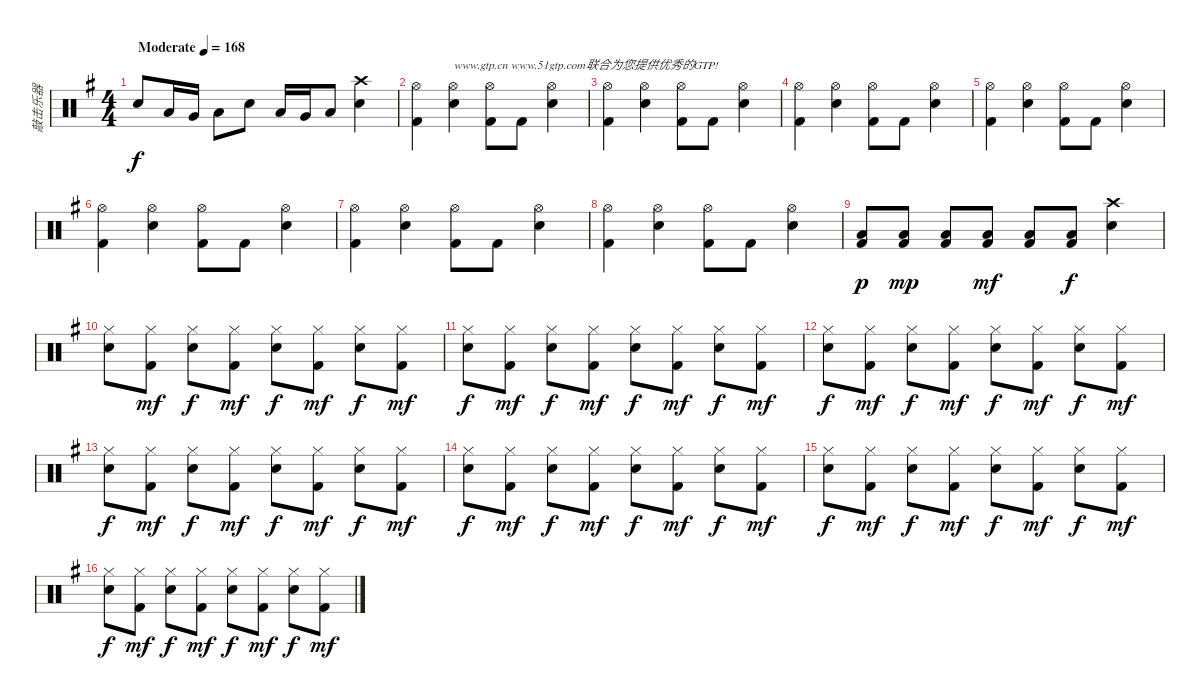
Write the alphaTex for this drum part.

\track ("敲击乐器" "敲击乐器") {instrument percussion}
\staff {score}
\articulation defaults
\ts (4 4)
\tempo (168 "Moderate")
\clef neutral
\ks g "Snare (hit) 2".8{dy f} "Low Tom (hit)".16 "Very Low Tom (hit)".16 "Low Tom (hit)".8 "Snare (hit) 2".8 "Low Tom (hit)".16 "Very Low Tom (hit)".16 "Low Tom (hit)".8
("Crash high (hit)" "Snare (hit) 2").4 |
("Hi-Hat (open)" "Kick (hit) 2").4 ("Hi-Hat (open)" "Snare (hit) 2").4{txt "www.gtp.cn www.51gtp.com联合为您提供优秀的GTP!"} ("Hi-Hat (open)" "Kick (hit) 2").8 "Kick (hit) 2".8 ("Hi-Hat (open)" "Snare (hit) 2").4 |
("Hi-Hat (open)" "Kick (hit) 2").4 ("Hi-Hat (open)" "Snare (hit) 2").4 ("Hi-Hat (open)" "Kick (hit) 2").8 "Kick (hit) 2".8 ("Hi-Hat (open)" "Snare (hit) 2").4 |
("Hi-Hat (open)" "Kick (hit) 2").4 ("Hi-Hat (open)" "Snare (hit) 2").4 ("Hi-Hat (open)" "Kick (hit) 2").8 "Kick (hit) 2".8 ("Hi-Hat (open)" "Snare (hit) 2").4 |
("Hi-Hat (open)" "Kick (hit) 2").4 ("Hi-Hat (open)" "Snare (hit) 2").4 ("Hi-Hat (open)" "Kick (hit) 2").8 "Kick (hit) 2".8 ("Hi-Hat (open)" "Snare (hit) 2").4 |
("Hi-Hat (open)" "Kick (hit) 2").4 ("Hi-Hat (open)" "Snare (hit) 2").4 ("Hi-Hat (open)" "Kick (hit) 2").8 "Kick (hit) 2".8 ("Hi-Hat (open)" "Snare (hit) 2").4 |
("Hi-Hat (open)" "Kick (hit) 2").4 ("Hi-Hat (open)" "Snare (hit) 2").4 ("Hi-Hat (open)" "Kick (hit) 2").8 "Kick (hit) 2".8 ("Hi-Hat (open)" "Snare (hit) 2").4 |
("Hi-Hat (open)" "Kick (hit) 2").4 ("Hi-Hat (open)" "Snare (hit) 2").4 ("Hi-Hat (open)" "Kick (hit) 2").8 "Kick (hit) 2".8 ("Hi-Hat (open)" "Snare (hit) 2").4 |
("Low Tom (hit)" "Kick (hit) 2").8{dy p} ("Low Tom (hit)" "Kick (hit) 2").8{dy mp} ("Low Tom (hit)" "Kick (hit) 2").8 ("Low Tom (hit)" "Kick (hit) 2").8{dy mf} ("Low Tom (hit)" "Kick (hit) 2").8 ("Low Tom (hit)" "Kick (hit) 2").8{dy f} ("Crash high (hit)" "Snare (hit) 2").4 |
("Hi-Hat (closed)" "Snare (hit) 2").8 ("Hi-Hat (closed)" "Kick (hit) 2").8{dy mf} ("Hi-Hat (closed)" "Snare (hit) 2").8{dy f} ("Hi-Hat (closed)" "Kick (hit) 2").8{dy mf} ("Hi-Hat (closed)" "Snare (hit) 2").8{dy f} ("Hi-Hat (closed)" "Kick (hit) 2").8{dy mf} ("Hi-Hat (closed)" "Snare (hit) 2").8{dy f} ("Hi-Hat (closed)" "Kick (hit) 2").8{dy mf} |
("Hi-Hat (closed)" "Snare (hit) 2").8{dy f} ("Hi-Hat (closed)" "Kick (hit) 2").8{dy mf} ("Hi-Hat (closed)" "Snare (hit) 2").8{dy f} ("Hi-Hat (closed)" "Kick (hit) 2").8{dy mf} ("Hi-Hat (closed)" "Snare (hit) 2").8{dy f} ("Hi-Hat (closed)" "Kick (hit) 2").8{dy mf} ("Hi-Hat (closed)" "Snare (hit) 2").8{dy f} ("Hi-Hat (closed)" "Kick (hit) 2").8{dy mf} |
("Hi-Hat (closed)" "Snare (hit) 2").8{dy f} ("Hi-Hat (closed)" "Kick (hit) 2").8{dy mf} ("Hi-Hat (closed)" "Snare (hit) 2").8{dy f} ("Hi-Hat (closed)" "Kick (hit) 2").8{dy mf} ("Hi-Hat (closed)" "Snare (hit) 2").8{dy f} ("Hi-Hat (closed)" "Kick (hit) 2").8{dy mf} ("Hi-Hat (closed)" "Snare (hit) 2").8{dy f} ("Hi-Hat (closed)" "Kick (hit) 2").8{dy mf} |
("Hi-Hat (closed)" "Snare (hit) 2").8{dy f} ("Hi-Hat (closed)" "Kick (hit) 2").8{dy mf} ("Hi-Hat (closed)" "Snare (hit) 2").8{dy f} ("Hi-Hat (closed)" "Kick (hit) 2").8{dy mf} ("Hi-Hat (closed)" "Snare (hit) 2").8{dy f} ("Hi-Hat (closed)" "Kick (hit) 2").8{dy mf} ("Hi-Hat (closed)" "Snare (hit) 2").8{dy f} ("Hi-Hat (closed)" "Kick (hit) 2").8{dy mf} |
("Hi-Hat (closed)" "Snare (hit) 2").8{dy f} ("Hi-Hat (closed)" "Kick (hit) 2").8{dy mf} ("Hi-Hat (closed)" "Snare (hit) 2").8{dy f} ("Hi-Hat (closed)" "Kick (hit) 2").8{dy mf} ("Hi-Hat (closed)" "Snare (hit) 2").8{dy f} ("Hi-Hat (closed)" "Kick (hit) 2").8{dy mf} ("Hi-Hat (closed)" "Snare (hit) 2").8{dy f} ("Hi-Hat (closed)" "Kick (hit) 2").8{dy mf} |
("Hi-Hat (closed)" "Snare (hit) 2").8{dy f} ("Hi-Hat (closed)" "Kick (hit) 2").8{dy mf} ("Hi-Hat (closed)" "Snare (hit) 2").8{dy f} ("Hi-Hat (closed)" "Kick (hit) 2").8{dy mf} ("Hi-Hat (closed)" "Snare (hit) 2").8{dy f} ("Hi-Hat (closed)" "Kick (hit) 2").8{dy mf} ("Hi-Hat (closed)" "Snare (hit) 2").8{dy f} ("Hi-Hat (closed)" "Kick (hit) 2").8{dy mf} |
("Hi-Hat (closed)" "Snare (hit) 2").8{dy f} ("Hi-Hat (closed)" "Kick (hit) 2").8{dy mf} ("Hi-Hat (closed)" "Snare (hit) 2").8{dy f} ("Hi-Hat (closed)" "Kick (hit) 2").8{dy mf} ("Hi-Hat (closed)" "Snare (hit) 2").8{dy f} ("Hi-Hat (closed)" "Kick (hit) 2").8{dy mf} ("Hi-Hat (closed)" "Snare (hit) 2").8{dy f} ("Hi-Hat (closed)" "Kick (hit) 2").8{dy mf}
